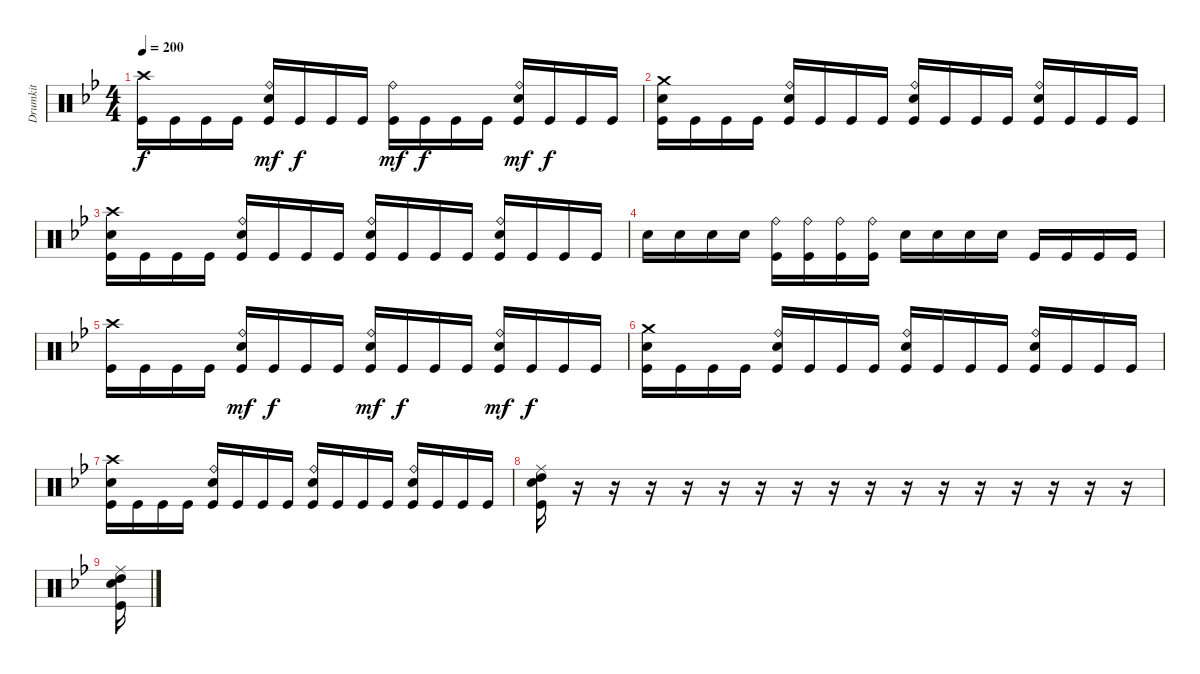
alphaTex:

\track ("Drumkit" "Drumkit") {instrument percussion}
\staff {score}
\articulation defaults
\ts (4 4)
\tempo 200
\clef neutral
\ks gminor
("Crash high (hit)" "Kick (hit)").16{dy f} "Kick (hit)".16 "Kick (hit)".16 "Kick (hit)".16 ("Ride (bell)" "Snare (hit) 2" "Kick (hit)").16{dy mf} "Kick (hit)".16{dy f} "Kick (hit)".16 "Kick (hit)".16 ("Ride (bell)" "Kick (hit)").16{dy mf} "Kick (hit)".16{dy f} "Kick (hit)".16 "Kick (hit)".16 ("Ride (bell)" "Snare (hit) 2" "Kick (hit)").16{dy mf} "Kick (hit)".16{dy f} "Kick (hit)".16 "Kick (hit)".16 |
("Crash medium (hit)" "Snare (hit) 2" "Kick (hit)").16 "Kick (hit)".16 "Kick (hit)".16 "Kick (hit)".16 ("Ride (bell)" "Snare (hit) 2" "Kick (hit)").16 "Kick (hit)".16 "Kick (hit)".16 "Kick (hit)".16 ("Ride (bell)" "Snare (hit) 2" "Kick (hit)").16 "Kick (hit)".16 "Kick (hit)".16 "Kick (hit)".16 ("Ride (bell)" "Snare (hit) 2" "Kick (hit)").16 "Kick (hit)".16 "Kick (hit)".16 "Kick (hit)".16 |
("Crash high (hit)" "Snare (hit) 2" "Kick (hit)").16 "Kick (hit)".16 "Kick (hit)".16 "Kick (hit)".16 ("Ride (bell)" "Snare (hit) 2" "Kick (hit)").16 "Kick (hit)".16 "Kick (hit)".16 "Kick (hit)".16 ("Ride (bell)" "Snare (hit) 2" "Kick (hit)").16 "Kick (hit)".16 "Kick (hit)".16 "Kick (hit)".16 ("Ride (bell)" "Snare (hit) 2" "Kick (hit)").16 "Kick (hit)".16 "Kick (hit)".16 "Kick (hit)".16 |
"Snare (hit) 2".16 "Snare (hit) 2".16 "Snare (hit) 2".16 "Snare (hit) 2".16 ("Ride (bell)" "Kick (hit)").16 ("Ride (bell)" "Kick (hit)").16 ("Ride (bell)" "Kick (hit)").16 ("Ride (bell)" "Kick (hit)").16 "Snare (hit) 2".16 "Snare (hit) 2".16 "Snare (hit) 2".16 "Snare (hit) 2".16 "Kick (hit)".16 "Kick (hit)".16 "Kick (hit)".16 "Kick (hit)".16 |
("Crash high (hit)" "Kick (hit)").16 "Kick (hit)".16 "Kick (hit)".16 "Kick (hit)".16 ("Ride (bell)" "Snare (hit) 2" "Kick (hit)").16{dy mf} "Kick (hit)".16{dy f} "Kick (hit)".16 "Kick (hit)".16 ("Ride (bell)" "Snare (hit) 2" "Kick (hit)").16{dy mf} "Kick (hit)".16{dy f} "Kick (hit)".16 "Kick (hit)".16 ("Ride (bell)" "Snare (hit) 2" "Kick (hit)").16{dy mf} "Kick (hit)".16{dy f} "Kick (hit)".16 "Kick (hit)".16 |
("Crash medium (hit)" "Snare (hit) 2" "Kick (hit)").16 "Kick (hit)".16 "Kick (hit)".16 "Kick (hit)".16 ("Ride (bell)" "Snare (hit) 2" "Kick (hit)").16 "Kick (hit)".16 "Kick (hit)".16 "Kick (hit)".16 ("Ride (bell)" "Snare (hit) 2" "Kick (hit)").16 "Kick (hit)".16 "Kick (hit)".16 "Kick (hit)".16 ("Ride (bell)" "Snare (hit) 2" "Kick (hit)").16 "Kick (hit)".16 "Kick (hit)".16 "Kick (hit)".16 |
("Crash high (hit)" "Snare (hit) 2" "Kick (hit)").16 "Kick (hit)".16 "Kick (hit)".16 "Kick (hit)".16 ("Ride (bell)" "Snare (hit) 2" "Kick (hit)").16 "Kick (hit)".16 "Kick (hit)".16 "Kick (hit)".16 ("Ride (bell)" "Snare (hit) 2" "Kick (hit)").16 "Kick (hit)".16 "Kick (hit)".16 "Kick (hit)".16 ("Ride (bell)" "Snare (hit) 2" "Kick (hit)").16 "Kick (hit)".16 "Kick (hit)".16 "Kick (hit)".16 |
("Snare (hit) 2" "Kick (hit)" "High Tom (hit)" "Ride (middle)").16 r.16 r.16 r.16 r.16 r.16 r.16 r.16 r.16 r.16 r.16 r.16 r.16 r.16 r.16 r.16 r.16 |
("Snare (hit) 2" "Kick (hit)" "High Tom (hit)" "Ride (middle)").16
